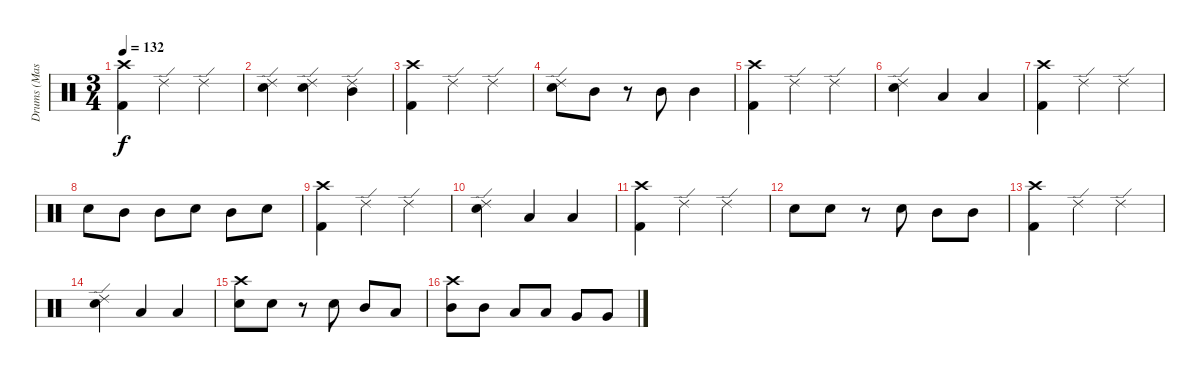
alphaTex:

\track ("Drums (Mason)" "Drums (Mas") {instrument percussion}
\staff {score}
\articulation defaults
\ts (3 4)
\section ("" "")
\tempo 132
\clef neutral
\ks c
("Crash high (hit)" "Kick (hit) 2").4{dy f} "Ride (edge) 2".4 "Ride (edge) 2".4 |
("Ride (edge) 2" "Snare (hit) 2").4 ("Ride (edge) 2" "Snare (hit) 2").4 ("Ride (edge) 2" "Mid Tom (hit)").4 |
("Crash high (hit)" "Kick (hit) 2").4 "Ride (edge) 2".4 "Ride (edge) 2".4 |
("Ride (edge) 2" "Snare (hit) 2").8 "Mid Tom (hit)".8 r.8 "Mid Tom (hit)".8 "Mid Tom (hit)".4 |
("Crash high (hit)" "Kick (hit) 2").4 "Ride (edge) 2".4 "Ride (edge) 2".4 |
("Ride (edge) 2" "Snare (hit) 2").4 "Low Tom (hit)".4 "Low Tom (hit)".4 |
("Crash high (hit)" "Kick (hit) 2").4 "Ride (edge) 2".4 "Ride (edge) 2".4 |
"Snare (hit) 2".8 "Mid Tom (hit)".8 "Mid Tom (hit)".8 "Snare (hit) 2".8 "Mid Tom (hit)".8 "Snare (hit) 2".8 |
\section ("" "")
("Crash high (hit)" "Kick (hit) 2").4 "Ride (edge) 2".4 "Ride (edge) 2".4 |
("Ride (edge) 2" "Snare (hit) 2").4 "Low Tom (hit)".4 "Low Tom (hit)".4 |
("Crash high (hit)" "Kick (hit) 2").4 "Ride (edge) 2".4 "Ride (edge) 2".4 |
"Snare (hit) 2".8 "Snare (hit) 2".8 r.8 "Snare (hit) 2".8 "Mid Tom (hit)".8 "Mid Tom (hit)".8 |
("Crash high (hit)" "Kick (hit) 2").4 "Ride (edge) 2".4 "Ride (edge) 2".4 |
("Ride (edge) 2" "Snare (hit) 2").4 "Low Tom (hit)".4 "Low Tom (hit)".4 |
("Snare (hit) 2" "Crash high (hit)").8 "Snare (hit) 2".8 r.8 "Snare (hit) 2".8 "Mid Tom (hit)".8 "Low Tom (hit)".8 |
("Crash high (hit)" "Mid Tom (hit)").8 "Mid Tom (hit)".8 "Low Tom (hit)".8 "Low Tom (hit)".8 "Very Low Tom (hit)".8 "Very Low Tom (hit)".8
